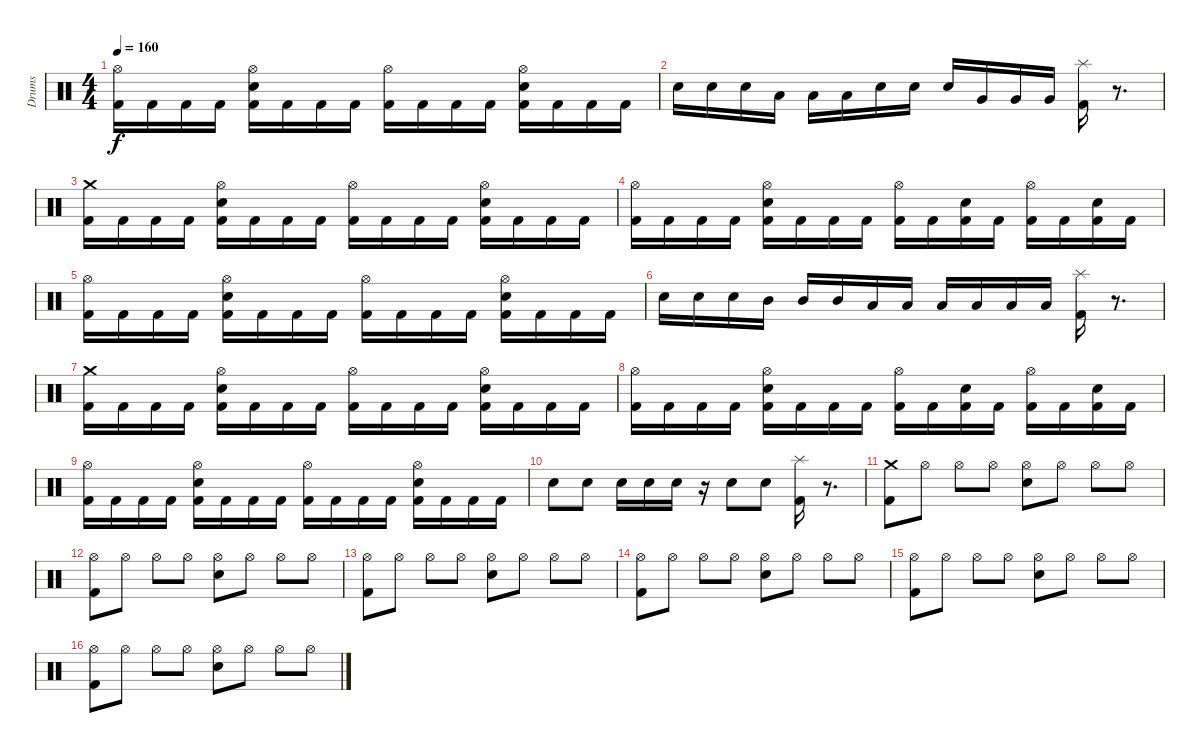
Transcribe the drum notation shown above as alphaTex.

\track ("Drums" "Drums") {instrument percussion}
\staff {score}
\articulation defaults
\ts (4 4)
\tempo 160
\clef neutral
\ks c
("Hi-Hat (open)" "Kick (hit) 2").16{dy f} "Kick (hit) 2".16 "Kick (hit) 2".16 "Kick (hit) 2".16 ("Hi-Hat (open)" "Electric Snare (hit)" "Kick (hit) 2").16 "Kick (hit) 2".16 "Kick (hit) 2".16 "Kick (hit) 2".16 ("Hi-Hat (open)" "Kick (hit) 2").16 "Kick (hit) 2".16 "Kick (hit) 2".16 "Kick (hit) 2".16 ("Electric Snare (hit)" "Hi-Hat (open)" "Kick (hit) 2").16 "Kick (hit) 2".16 "Kick (hit) 2".16 "Kick (hit) 2".16 |
"Electric Snare (hit)".16 "Electric Snare (hit)".16 "Electric Snare (hit)".16 "Low Tom (hit)".16 "Low Tom (hit)".16 "Low Tom (hit)".16 "Electric Snare (hit)".16 "Electric Snare (hit)".16 "Electric Snare (hit)".16 "Very Low Tom (hit)".16 "Very Low Tom (hit)".16 "Very Low Tom (hit)".16 ("Splash (hit)" "Kick (hit) 2").16 r.8{d} |
("Kick (hit) 2" "Crash medium (hit)").16 "Kick (hit) 2".16 "Kick (hit) 2".16 "Kick (hit) 2".16 ("Hi-Hat (open)" "Electric Snare (hit)" "Kick (hit) 2").16 "Kick (hit) 2".16 "Kick (hit) 2".16 "Kick (hit) 2".16 ("Hi-Hat (open)" "Kick (hit) 2").16 "Kick (hit) 2".16 "Kick (hit) 2".16 "Kick (hit) 2".16 ("Hi-Hat (open)" "Electric Snare (hit)" "Kick (hit) 2").16 "Kick (hit) 2".16 "Kick (hit) 2".16 "Kick (hit) 2".16 |
("Hi-Hat (open)" "Kick (hit) 2").16 "Kick (hit) 2".16 "Kick (hit) 2".16 "Kick (hit) 2".16 ("Hi-Hat (open)" "Electric Snare (hit)" "Kick (hit) 2").16 "Kick (hit) 2".16 "Kick (hit) 2".16 "Kick (hit) 2".16 ("Hi-Hat (open)" "Kick (hit) 2").16 "Kick (hit) 2".16 ("Electric Snare (hit)" "Kick (hit) 2").16 "Kick (hit) 2".16 ("Hi-Hat (open)" "Kick (hit) 2").16 "Kick (hit) 2".16 ("Electric Snare (hit)" "Kick (hit) 2").16 "Kick (hit) 2".16 |
("Hi-Hat (open)" "Kick (hit) 2").16 "Kick (hit) 2".16 "Kick (hit) 2".16 "Kick (hit) 2".16 ("Hi-Hat (open)" "Electric Snare (hit)" "Kick (hit) 2").16 "Kick (hit) 2".16 "Kick (hit) 2".16 "Kick (hit) 2".16 ("Hi-Hat (open)" "Kick (hit) 2").16 "Kick (hit) 2".16 "Kick (hit) 2".16 "Kick (hit) 2".16 ("Electric Snare (hit)" "Hi-Hat (open)" "Kick (hit) 2").16 "Kick (hit) 2".16 "Kick (hit) 2".16 "Kick (hit) 2".16 |
"Electric Snare (hit)".16 "Electric Snare (hit)".16 "Electric Snare (hit)".16 "Mid Tom (hit)".16 "Mid Tom (hit)".16 "Mid Tom (hit)".16 "Low Floor Tom (hit)".16 "Low Floor Tom (hit)".16 "Low Floor Tom (hit)".16 "Low Tom (hit)".16 "Low Tom (hit)".16 "Low Tom (hit)".16 ("Splash (hit)" "Kick (hit) 2").16 r.8{d} |
("Kick (hit) 2" "Crash medium (hit)").16 "Kick (hit) 2".16 "Kick (hit) 2".16 "Kick (hit) 2".16 ("Hi-Hat (open)" "Electric Snare (hit)" "Kick (hit) 2").16 "Kick (hit) 2".16 "Kick (hit) 2".16 "Kick (hit) 2".16 ("Hi-Hat (open)" "Kick (hit) 2").16 "Kick (hit) 2".16 "Kick (hit) 2".16 "Kick (hit) 2".16 ("Hi-Hat (open)" "Electric Snare (hit)" "Kick (hit) 2").16 "Kick (hit) 2".16 "Kick (hit) 2".16 "Kick (hit) 2".16 |
("Hi-Hat (open)" "Kick (hit) 2").16 "Kick (hit) 2".16 "Kick (hit) 2".16 "Kick (hit) 2".16 ("Hi-Hat (open)" "Electric Snare (hit)" "Kick (hit) 2").16 "Kick (hit) 2".16 "Kick (hit) 2".16 "Kick (hit) 2".16 ("Hi-Hat (open)" "Kick (hit) 2").16 "Kick (hit) 2".16 ("Electric Snare (hit)" "Kick (hit) 2").16 "Kick (hit) 2".16 ("Hi-Hat (open)" "Kick (hit) 2").16 "Kick (hit) 2".16 ("Electric Snare (hit)" "Kick (hit) 2").16 "Kick (hit) 2".16 |
("Hi-Hat (open)" "Kick (hit) 2").16 "Kick (hit) 2".16 "Kick (hit) 2".16 "Kick (hit) 2".16 ("Hi-Hat (open)" "Electric Snare (hit)" "Kick (hit) 2").16 "Kick (hit) 2".16 "Kick (hit) 2".16 "Kick (hit) 2".16 ("Hi-Hat (open)" "Kick (hit) 2").16 "Kick (hit) 2".16 "Kick (hit) 2".16 "Kick (hit) 2".16 ("Electric Snare (hit)" "Hi-Hat (open)" "Kick (hit) 2").16 "Kick (hit) 2".16 "Kick (hit) 2".16 "Kick (hit) 2".16 |
"Electric Snare (hit)".8 "Electric Snare (hit)".8 "Electric Snare (hit)".16 "Electric Snare (hit)".16 "Electric Snare (hit)".16 r.16 "Electric Snare (hit)".8 "Electric Snare (hit)".8 ("Splash (hit)" "Kick (hit) 2").16 r.8{d} |
("Crash medium (hit)" "Kick (hit) 2").8 "Hi-Hat (open)".8 "Hi-Hat (open)".8 "Hi-Hat (open)".8 ("Hi-Hat (open)" "Electric Snare (hit)").8 "Hi-Hat (open)".8 "Hi-Hat (open)".8 "Hi-Hat (open)".8 |
("Hi-Hat (open)" "Kick (hit) 2").8 "Hi-Hat (open)".8 "Hi-Hat (open)".8 "Hi-Hat (open)".8 ("Hi-Hat (open)" "Electric Snare (hit)").8 "Hi-Hat (open)".8 "Hi-Hat (open)".8 "Hi-Hat (open)".8 |
("Hi-Hat (open)" "Kick (hit) 2").8 "Hi-Hat (open)".8 "Hi-Hat (open)".8 "Hi-Hat (open)".8 ("Hi-Hat (open)" "Electric Snare (hit)").8 "Hi-Hat (open)".8 "Hi-Hat (open)".8 "Hi-Hat (open)".8 |
("Hi-Hat (open)" "Kick (hit) 2").8 "Hi-Hat (open)".8 "Hi-Hat (open)".8 "Hi-Hat (open)".8 ("Hi-Hat (open)" "Electric Snare (hit)").8 "Hi-Hat (open)".8 "Hi-Hat (open)".8 "Hi-Hat (open)".8 |
("Hi-Hat (open)" "Kick (hit) 2").8 "Hi-Hat (open)".8 "Hi-Hat (open)".8 "Hi-Hat (open)".8 ("Hi-Hat (open)" "Electric Snare (hit)").8 "Hi-Hat (open)".8 "Hi-Hat (open)".8 "Hi-Hat (open)".8 |
("Hi-Hat (open)" "Kick (hit) 2").8 "Hi-Hat (open)".8 "Hi-Hat (open)".8 "Hi-Hat (open)".8 ("Hi-Hat (open)" "Electric Snare (hit)").8 "Hi-Hat (open)".8 "Hi-Hat (open)".8 "Hi-Hat (open)".8
